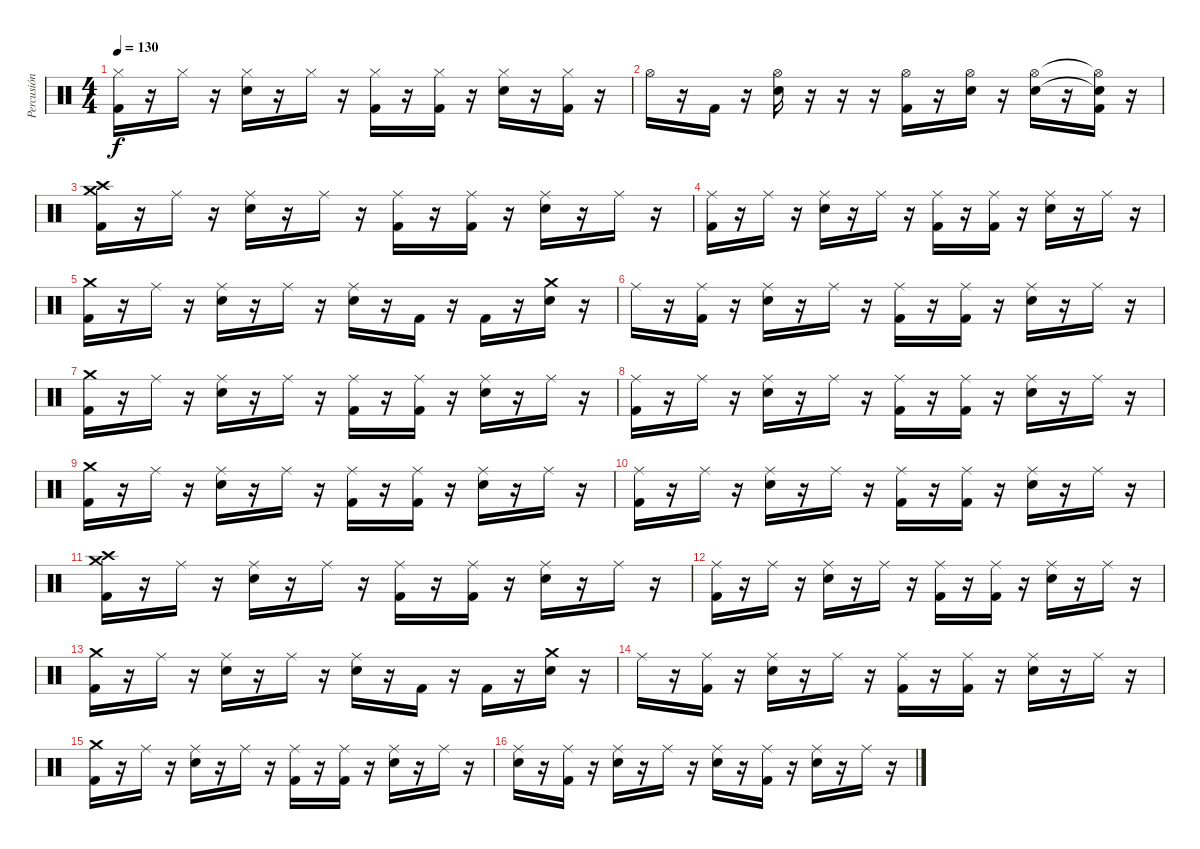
\track ("Percusión" "Percusión") {instrument percussion}
\staff {score}
\articulation defaults
\ts (4 4)
\tempo 130
\clef neutral
\ks c
("Hi-Hat (closed)" "Kick (hit) 2").16{dy f} r.16 "Hi-Hat (closed)".16 r.16 ("Hi-Hat (closed)" "Electric Snare (hit)").16 r.16 "Hi-Hat (closed)".16 r.16 ("Hi-Hat (closed)" "Kick (hit) 2").16 r.16 ("Hi-Hat (closed)" "Kick (hit) 2").16 r.16 ("Hi-Hat (closed)" "Electric Snare (hit)").16 r.16 ("Hi-Hat (closed)" "Kick (hit) 2").16 r.16 |
"Hi-Hat (open)".16 r.16 "Kick (hit) 2".16 r.16 ("Hi-Hat (open)" "Electric Snare (hit)").16 r.16 r.16 r.16 ("Hi-Hat (open)" "Kick (hit) 2").16 r.16 ("Hi-Hat (open)" "Electric Snare (hit)").16 r.16 ("Hi-Hat (open)" "Electric Snare (hit)").16 r.16 ("Hi-Hat (open)"{t} "Electric Snare (hit)"{t} "Kick (hit) 2").16 r.16 |
("Crash medium (hit)" "Crash high (hit)" "Kick (hit) 2").16 r.16 "Ride (middle)".16 r.16 ("Ride (middle)" "Electric Snare (hit)").16 r.16 "Ride (middle)".16 r.16 ("Ride (middle)" "Kick (hit) 2").16 r.16 ("Ride (middle)" "Kick (hit) 2").16 r.16 ("Ride (middle)" "Electric Snare (hit)").16 r.16 "Ride (middle)".16 r.16 |
("Ride (middle)" "Kick (hit) 2").16 r.16 "Ride (middle)".16 r.16 ("Ride (middle)" "Electric Snare (hit)").16 r.16 "Ride (middle)".16 r.16 ("Ride (middle)" "Kick (hit) 2").16 r.16 ("Ride (middle)" "Kick (hit) 2").16 r.16 ("Ride (middle)" "Electric Snare (hit)").16 r.16 "Ride (middle)".16 r.16 |
("Crash medium (hit)" "Kick (hit) 2").16 r.16 "Ride (middle)".16 r.16 ("Ride (middle)" "Electric Snare (hit)").16 r.16 "Ride (middle)".16 r.16 ("Ride (middle)" "Electric Snare (hit)").16 r.16 "Kick (hit) 2".16 r.16 "Kick (hit) 2".16 r.16 ("Crash medium (hit)" "Electric Snare (hit)").16 r.16 |
"Ride (middle)".16 r.16 ("Ride (middle)" "Kick (hit) 2").16 r.16 ("Ride (middle)" "Electric Snare (hit)").16 r.16 "Ride (middle)".16 r.16 ("Ride (middle)" "Kick (hit) 2").16 r.16 ("Ride (middle)" "Kick (hit) 2").16 r.16 ("Ride (middle)" "Electric Snare (hit)").16 r.16 "Ride (middle)".16 r.16 |
("Crash medium (hit)" "Kick (hit) 2").16 r.16 "Ride (middle)".16 r.16 ("Ride (middle)" "Electric Snare (hit)").16 r.16 "Ride (middle)".16 r.16 ("Ride (middle)" "Kick (hit) 2").16 r.16 ("Ride (middle)" "Kick (hit) 2").16 r.16 ("Ride (middle)" "Electric Snare (hit)").16 r.16 "Ride (middle)".16 r.16 |
("Ride (middle)" "Kick (hit) 2").16 r.16 "Ride (middle)".16 r.16 ("Ride (middle)" "Electric Snare (hit)").16 r.16 "Ride (middle)".16 r.16 ("Ride (middle)" "Kick (hit) 2").16 r.16 ("Ride (middle)" "Kick (hit) 2").16 r.16 ("Ride (middle)" "Electric Snare (hit)").16 r.16 "Ride (middle)".16 r.16 |
("Crash medium (hit)" "Kick (hit) 2").16 r.16 "Ride (middle)".16 r.16 ("Ride (middle)" "Electric Snare (hit)").16 r.16 "Ride (middle)".16 r.16 ("Ride (middle)" "Kick (hit) 2").16 r.16 ("Ride (middle)" "Kick (hit) 2").16 r.16 ("Ride (middle)" "Electric Snare (hit)").16 r.16 "Ride (middle)".16 r.16 |
("Ride (middle)" "Kick (hit) 2").16 r.16 "Ride (middle)".16 r.16 ("Ride (middle)" "Electric Snare (hit)").16 r.16 "Ride (middle)".16 r.16 ("Ride (middle)" "Kick (hit) 2").16 r.16 ("Ride (middle)" "Kick (hit) 2").16 r.16 ("Ride (middle)" "Electric Snare (hit)").16 r.16 "Ride (middle)".16 r.16 |
("Crash medium (hit)" "Crash high (hit)" "Kick (hit) 2").16 r.16 "Ride (middle)".16 r.16 ("Ride (middle)" "Electric Snare (hit)").16 r.16 "Ride (middle)".16 r.16 ("Ride (middle)" "Kick (hit) 2").16 r.16 ("Ride (middle)" "Kick (hit) 2").16 r.16 ("Ride (middle)" "Electric Snare (hit)").16 r.16 "Ride (middle)".16 r.16 |
("Ride (middle)" "Kick (hit) 2").16 r.16 "Ride (middle)".16 r.16 ("Ride (middle)" "Electric Snare (hit)").16 r.16 "Ride (middle)".16 r.16 ("Ride (middle)" "Kick (hit) 2").16 r.16 ("Ride (middle)" "Kick (hit) 2").16 r.16 ("Ride (middle)" "Electric Snare (hit)").16 r.16 "Ride (middle)".16 r.16 |
("Crash medium (hit)" "Kick (hit) 2").16 r.16 "Ride (middle)".16 r.16 ("Ride (middle)" "Electric Snare (hit)").16 r.16 "Ride (middle)".16 r.16 ("Ride (middle)" "Electric Snare (hit)").16 r.16 "Kick (hit) 2".16 r.16 "Kick (hit) 2".16 r.16 ("Crash medium (hit)" "Electric Snare (hit)").16 r.16 |
"Ride (middle)".16 r.16 ("Ride (middle)" "Kick (hit) 2").16 r.16 ("Ride (middle)" "Electric Snare (hit)").16 r.16 "Ride (middle)".16 r.16 ("Ride (middle)" "Kick (hit) 2").16 r.16 ("Ride (middle)" "Kick (hit) 2").16 r.16 ("Ride (middle)" "Electric Snare (hit)").16 r.16 "Ride (middle)".16 r.16 |
("Crash medium (hit)" "Kick (hit) 2").16 r.16 "Ride (middle)".16 r.16 ("Ride (middle)" "Electric Snare (hit)").16 r.16 "Ride (middle)".16 r.16 ("Ride (middle)" "Kick (hit) 2").16 r.16 ("Ride (middle)" "Kick (hit) 2").16 r.16 ("Ride (middle)" "Electric Snare (hit)").16 r.16 "Ride (middle)".16 r.16 |
("Ride (middle)" "Electric Snare (hit)").16 r.16 ("Ride (middle)" "Kick (hit) 2").16 r.16 ("Ride (middle)" "Electric Snare (hit)").16 r.16 "Ride (middle)".16 r.16 ("Ride (middle)" "Electric Snare (hit)").16 r.16 ("Ride (middle)" "Kick (hit) 2").16 r.16 ("Ride (middle)" "Electric Snare (hit)").16 r.16 "Ride (middle)".16 r.16
